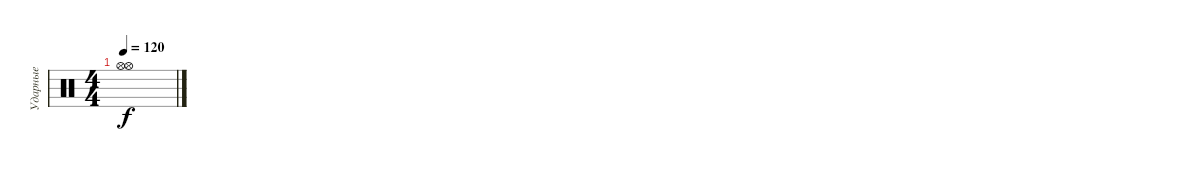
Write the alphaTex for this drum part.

\track ("Ударные" "Ударные") {instrument percussion}
\staff {score}
\articulation defaults
\ts (4 4)
\tempo 120
\clef neutral
\ks c
("Hi-Hat (open)" "Hi-Hat (open)").1{dy f}
